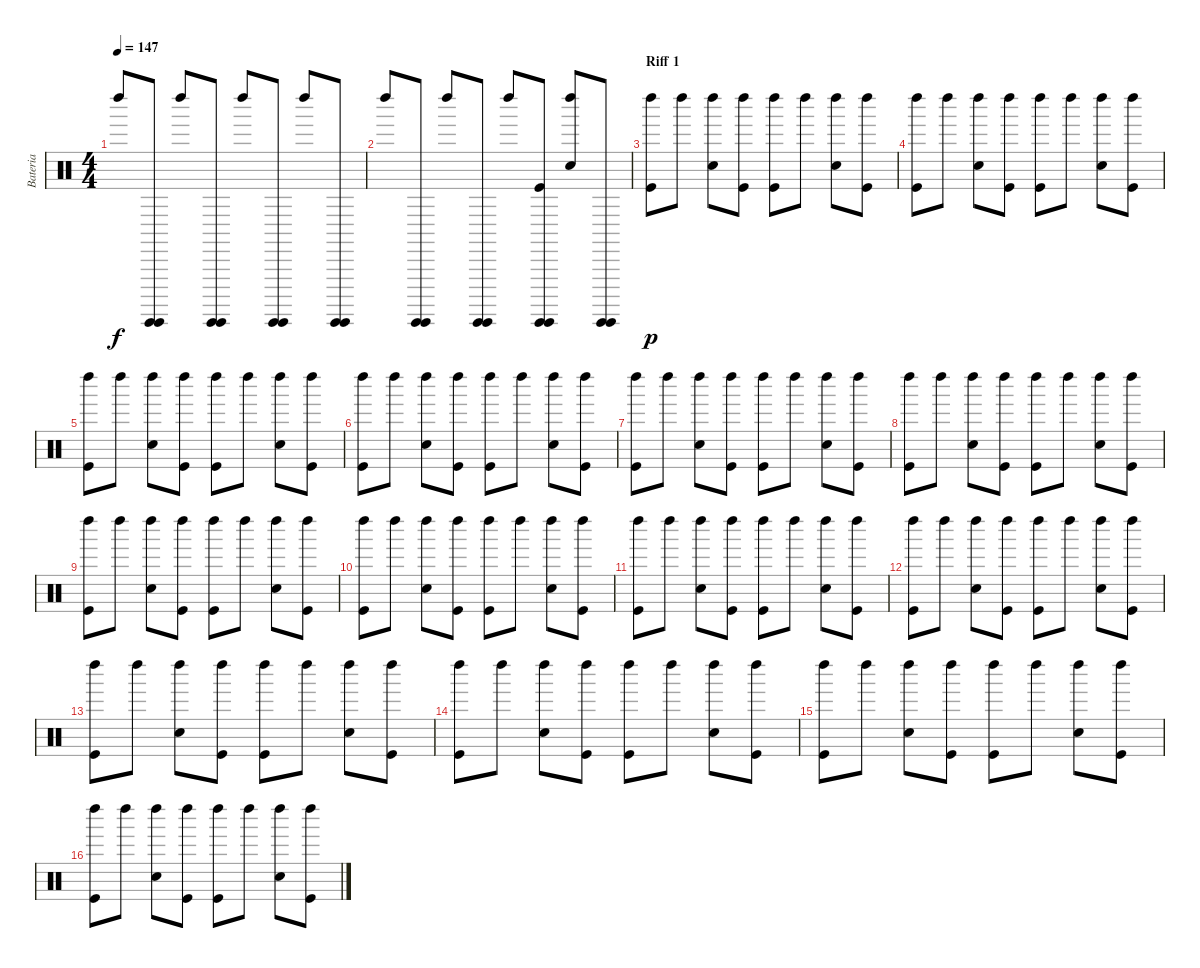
\track ("Bateria" "Bateria") {instrument percussion}
\staff {score}
\articulation defaults
\ts (4 4)
\tempo 147
\clef neutral
\ks c "Left Maraca (hit)".8{dy f}
("Guiro (hit)" "Guiro (hit)").8 "Left Maraca (hit)".8 ("Guiro (hit)" "Guiro (hit)").8 "Left Maraca (hit)".8 ("Guiro (hit)" "Guiro (hit)").8 "Left Maraca (hit)".8 ("Guiro (hit)" "Guiro (hit)").8 |
"Left Maraca (hit)".8 ("Guiro (hit)" "Guiro (hit)").8 "Left Maraca (hit)".8 ("Guiro (hit)" "Guiro (hit)").8{volume 13} "Left Maraca (hit)".8 ("Guiro (hit)" "Guiro (hit)" "Kick (hit)").8 ("Left Maraca (hit)" "Snare (hit) 2").8 ("Guiro (hit)" "Guiro (hit)").8 |
\section ("" "Riff 1")
("Left Maraca (hit)" "Kick (hit)").8{dy p} "Left Maraca (hit)".8 ("Left Maraca (hit)" "Snare (hit) 2").8 ("Left Maraca (hit)" "Kick (hit)").8 ("Left Maraca (hit)" "Kick (hit)").8 "Left Maraca (hit)".8 ("Left Maraca (hit)" "Snare (hit) 2").8 ("Left Maraca (hit)" "Kick (hit)").8 |
("Kick (hit)" "Left Maraca (hit)").8 "Left Maraca (hit)".8 ("Snare (hit) 2" "Left Maraca (hit)").8 ("Left Maraca (hit)" "Kick (hit)").8 ("Left Maraca (hit)" "Kick (hit)").8 "Left Maraca (hit)".8 ("Snare (hit) 2" "Left Maraca (hit)").8 ("Kick (hit)" "Left Maraca (hit)").8 |
("Kick (hit)" "Left Maraca (hit)").8 "Left Maraca (hit)".8 ("Snare (hit) 2" "Left Maraca (hit)").8 ("Left Maraca (hit)" "Kick (hit)").8 ("Left Maraca (hit)" "Kick (hit)").8 "Left Maraca (hit)".8 ("Snare (hit) 2" "Left Maraca (hit)").8 ("Kick (hit)" "Left Maraca (hit)").8 |
("Kick (hit)" "Left Maraca (hit)").8 "Left Maraca (hit)".8 ("Left Maraca (hit)" "Snare (hit) 2").8 ("Left Maraca (hit)" "Kick (hit)").8 ("Left Maraca (hit)" "Kick (hit)").8 "Left Maraca (hit)".8 ("Left Maraca (hit)" "Snare (hit) 2").8 ("Left Maraca (hit)" "Kick (hit)").8 |
("Kick (hit)" "Left Maraca (hit)").8 "Left Maraca (hit)".8 ("Snare (hit) 2" "Left Maraca (hit)").8 ("Left Maraca (hit)" "Kick (hit)").8 ("Left Maraca (hit)" "Kick (hit)").8 "Left Maraca (hit)".8 ("Snare (hit) 2" "Left Maraca (hit)").8 ("Kick (hit)" "Left Maraca (hit)").8 |
("Kick (hit)" "Left Maraca (hit)").8 "Left Maraca (hit)".8 ("Snare (hit) 2" "Left Maraca (hit)").8 ("Left Maraca (hit)" "Kick (hit)").8 ("Left Maraca (hit)" "Kick (hit)").8 "Left Maraca (hit)".8 ("Snare (hit) 2" "Left Maraca (hit)").8 ("Kick (hit)" "Left Maraca (hit)").8 |
("Kick (hit)" "Left Maraca (hit)").8 "Left Maraca (hit)".8 ("Left Maraca (hit)" "Snare (hit) 2").8 ("Left Maraca (hit)" "Kick (hit)").8 ("Left Maraca (hit)" "Kick (hit)").8 "Left Maraca (hit)".8 ("Left Maraca (hit)" "Snare (hit) 2").8 ("Left Maraca (hit)" "Kick (hit)").8 |
("Kick (hit)" "Left Maraca (hit)").8 "Left Maraca (hit)".8 ("Snare (hit) 2" "Left Maraca (hit)").8 ("Left Maraca (hit)" "Kick (hit)").8 ("Left Maraca (hit)" "Kick (hit)").8 "Left Maraca (hit)".8 ("Snare (hit) 2" "Left Maraca (hit)").8 ("Kick (hit)" "Left Maraca (hit)").8 |
("Kick (hit)" "Left Maraca (hit)").8 "Left Maraca (hit)".8 ("Snare (hit) 2" "Left Maraca (hit)").8 ("Left Maraca (hit)" "Kick (hit)").8 ("Left Maraca (hit)" "Kick (hit)").8 "Left Maraca (hit)".8 ("Snare (hit) 2" "Left Maraca (hit)").8 ("Kick (hit)" "Left Maraca (hit)").8 |
("Left Maraca (hit)" "Kick (hit)").8 "Left Maraca (hit)".8 ("Snare (hit) 2" "Left Maraca (hit)").8 ("Left Maraca (hit)" "Kick (hit)").8 ("Left Maraca (hit)" "Kick (hit)").8 "Left Maraca (hit)".8 ("Snare (hit) 2" "Left Maraca (hit)").8 ("Kick (hit)" "Left Maraca (hit)").8 |
("Kick (hit)" "Left Maraca (hit)").8 "Left Maraca (hit)".8 ("Snare (hit) 2" "Left Maraca (hit)").8 ("Left Maraca (hit)" "Kick (hit)").8 ("Left Maraca (hit)" "Kick (hit)").8 "Left Maraca (hit)".8 ("Snare (hit) 2" "Left Maraca (hit)").8 ("Kick (hit)" "Left Maraca (hit)").8 |
("Left Maraca (hit)" "Kick (hit)").8 "Left Maraca (hit)".8 ("Snare (hit) 2" "Left Maraca (hit)").8 ("Left Maraca (hit)" "Kick (hit)").8 ("Left Maraca (hit)" "Kick (hit)").8 "Left Maraca (hit)".8 ("Snare (hit) 2" "Left Maraca (hit)").8 ("Kick (hit)" "Left Maraca (hit)").8 |
("Kick (hit)" "Left Maraca (hit)").8 "Left Maraca (hit)".8 ("Snare (hit) 2" "Left Maraca (hit)").8 ("Left Maraca (hit)" "Kick (hit)").8 ("Left Maraca (hit)" "Kick (hit)").8 "Left Maraca (hit)".8 ("Snare (hit) 2" "Left Maraca (hit)").8 ("Kick (hit)" "Left Maraca (hit)").8 |
("Left Maraca (hit)" "Kick (hit)").8 "Left Maraca (hit)".8 ("Snare (hit) 2" "Left Maraca (hit)").8 ("Left Maraca (hit)" "Kick (hit)").8 ("Left Maraca (hit)" "Kick (hit)").8 "Left Maraca (hit)".8 ("Snare (hit) 2" "Left Maraca (hit)").8 ("Kick (hit)" "Left Maraca (hit)").8
